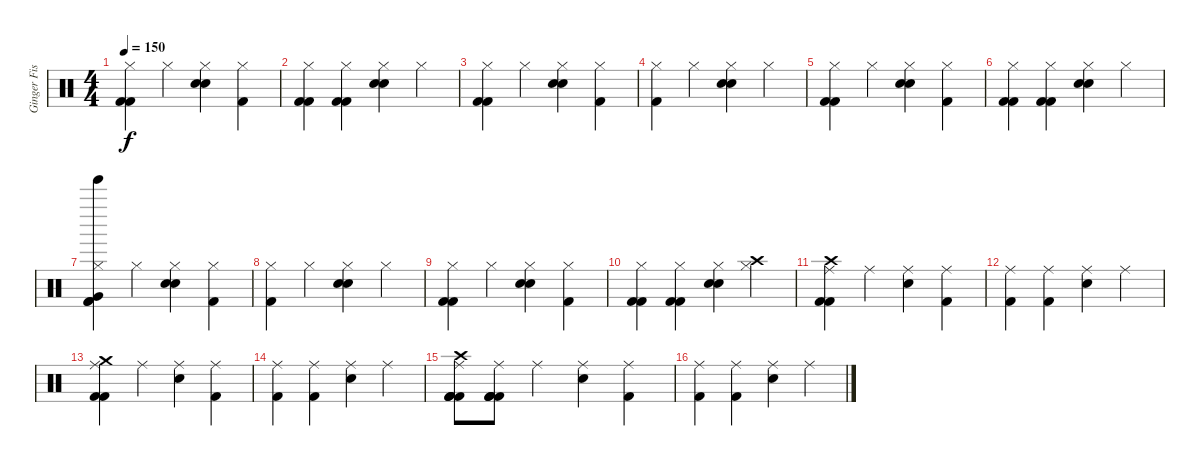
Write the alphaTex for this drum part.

\track ("Ginger Fish" "Ginger Fis") {instrument percussion}
\staff {score}
\articulation defaults
\ts (4 4)
\tempo 150
\clef neutral
\ks c
("Hi-Hat (closed)" "Kick (hit) 2" "Kick (hit) 2").4{dy f} "Hi-Hat (closed)".4 ("Hi-Hat (closed)" "Snare (hit) 2" "Snare (hit) 2").4 ("Hi-Hat (closed)" "Kick (hit) 2").4 |
("Hi-Hat (closed)" "Kick (hit) 2" "Kick (hit) 2").4 ("Hi-Hat (closed)" "Kick (hit) 2" "Kick (hit) 2").4 ("Hi-Hat (closed)" "Snare (hit) 2" "Snare (hit) 2").4 "Hi-Hat (closed)".4 |
("Hi-Hat (closed)" "Kick (hit) 2" "Kick (hit) 2").4 "Hi-Hat (closed)".4 ("Hi-Hat (closed)" "Snare (hit) 2" "Snare (hit) 2").4 ("Hi-Hat (closed)" "Kick (hit) 2").4 |
("Hi-Hat (closed)" "Kick (hit) 2").4 "Hi-Hat (closed)".4 ("Hi-Hat (closed)" "Snare (hit) 2" "Snare (hit) 2").4 "Hi-Hat (closed)".4 |
("Hi-Hat (closed)" "Kick (hit) 2" "Kick (hit) 2").4 "Hi-Hat (closed)".4 ("Hi-Hat (closed)" "Snare (hit) 2" "Snare (hit) 2").4 ("Hi-Hat (closed)" "Kick (hit) 2").4 |
("Hi-Hat (closed)" "Kick (hit) 2" "Kick (hit) 2").4 ("Hi-Hat (closed)" "Kick (hit) 2" "Kick (hit) 2").4 ("Hi-Hat (closed)" "Snare (hit) 2" "Snare (hit) 2").4 "Hi-Hat (closed)".4 |
("Tinkle Bell (hit)" "Hi-Hat (closed)" "Very Low Tom (hit)" "Kick (hit) 2" "Kick (hit) 2").4 "Hi-Hat (closed)".4 ("Hi-Hat (closed)" "Snare (hit) 2" "Snare (hit) 2").4 ("Hi-Hat (closed)" "Kick (hit) 2").4 |
("Hi-Hat (closed)" "Kick (hit) 2").4 "Hi-Hat (closed)".4 ("Hi-Hat (closed)" "Snare (hit) 2" "Snare (hit) 2").4 "Hi-Hat (closed)".4 |
("Hi-Hat (closed)" "Kick (hit) 2" "Kick (hit) 2").4 "Hi-Hat (closed)".4 ("Hi-Hat (closed)" "Snare (hit) 2" "Snare (hit) 2").4 ("Hi-Hat (closed)" "Kick (hit) 2").4 |
("Hi-Hat (closed)" "Kick (hit) 2" "Kick (hit) 2").4 ("Hi-Hat (closed)" "Kick (hit) 2" "Kick (hit) 2").4 ("Hi-Hat (closed)" "Snare (hit) 2" "Snare (hit) 2").4 ("Crash high (hit)" "Hi-Hat (closed)").4 |
("Crash high (hit)" "Ride (middle)" "Kick (hit) 2" "Kick (hit) 2").4 "Ride (middle)".4 ("Ride (middle)" "Electric Snare (hit)").4 ("Ride (middle)" "Kick (hit) 2").4 |
("Ride (middle)" "Kick (hit) 2").4 ("Ride (middle)" "Kick (hit) 2").4 ("Ride (middle)" "Electric Snare (hit)").4 "Ride (middle)".4 |
("Crash medium (hit)" "Ride (middle)" "Kick (hit) 2" "Kick (hit) 2").4 "Ride (middle)".4 ("Ride (middle)" "Electric Snare (hit)").4 ("Ride (middle)" "Kick (hit) 2").4 |
("Ride (middle)" "Kick (hit) 2").4 ("Ride (middle)" "Kick (hit) 2").4 ("Ride (middle)" "Electric Snare (hit)").4 "Ride (middle)".4 |
("Crash high (hit)" "Ride (middle)" "Kick (hit) 2" "Kick (hit) 2" "Kick (hit) 2" "Kick (hit) 2").8 ("Ride (middle)" "Kick (hit) 2" "Kick (hit) 2" "Kick (hit) 2" "Kick (hit) 2").8 "Ride (middle)".4 ("Ride (middle)" "Electric Snare (hit)").4 ("Ride (middle)" "Kick (hit) 2").4 |
("Ride (middle)" "Kick (hit) 2").4 ("Ride (middle)" "Kick (hit) 2").4 ("Ride (middle)" "Electric Snare (hit)").4 "Ride (middle)".4
